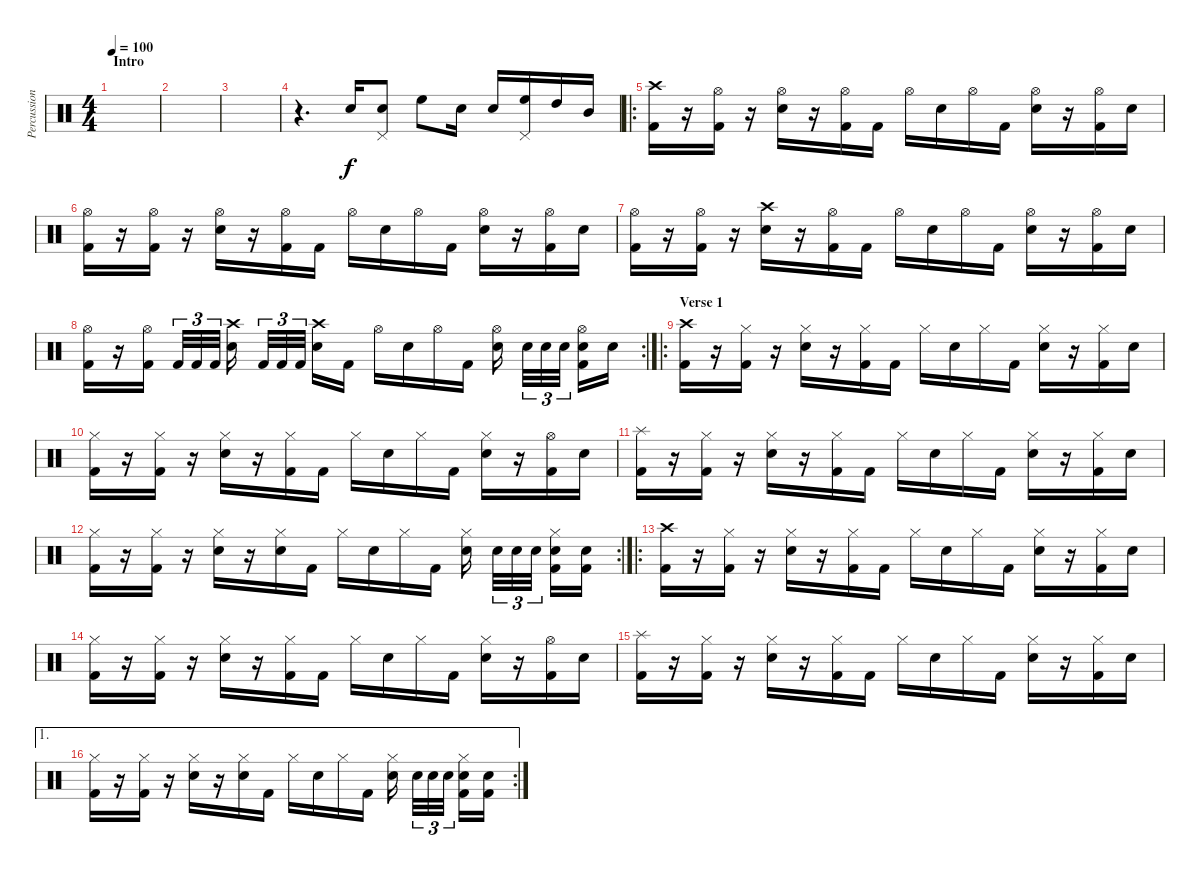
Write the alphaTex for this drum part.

\track ("Percussion" "Percussion") {instrument percussion}
\staff {score}
\articulation defaults
\ts (4 4)
\section ("" "Intro")
\tempo 100
\clef neutral
\ks c
|
|
|
r.4{d} "Electric Snare (hit)".16 ("Pedal Hi-Hat (hit)" "Electric Snare (hit)").8 "High Floor Tom (hit)".8 "Electric Snare (hit)".16 "Electric Snare (hit)".16 ("Pedal Hi-Hat (hit)" "High Floor Tom (hit)").16 "High Tom (hit)".16 "Mid Tom (hit)".16 |
\ro
("Crash high (hit)" "Kick (hit) 2").16 r.16 ("Hi-Hat (open)" "Kick (hit) 2").16 r.16 ("Hi-Hat (open)" "Electric Snare (hit)").16 r.16 ("Hi-Hat (open)" "Kick (hit) 2").16 "Kick (hit) 2".16 "Hi-Hat (open)".16 "Electric Snare (hit)".16 "Hi-Hat (open)".16 "Kick (hit) 2".16 ("Hi-Hat (open)" "Electric Snare (hit)").16 r.16 ("Hi-Hat (open)" "Kick (hit) 2").16 "Electric Snare (hit)".16 |
("Hi-Hat (open)" "Kick (hit) 2").16 r.16 ("Hi-Hat (open)" "Kick (hit) 2").16 r.16 ("Hi-Hat (open)" "Electric Snare (hit)").16 r.16 ("Hi-Hat (open)" "Kick (hit) 2").16 "Kick (hit) 2".16 "Hi-Hat (open)".16 "Electric Snare (hit)".16 "Hi-Hat (open)".16 "Kick (hit) 2".16 ("Hi-Hat (open)" "Electric Snare (hit)").16 r.16 ("Hi-Hat (open)" "Kick (hit) 2").16 "Electric Snare (hit)".16 |
("Hi-Hat (open)" "Kick (hit) 2").16 r.16 ("Hi-Hat (open)" "Kick (hit) 2").16 r.16 ("Crash high (hit)" "Electric Snare (hit)").16 r.16 ("Hi-Hat (open)" "Kick (hit) 2").16 "Kick (hit) 2".16 "Hi-Hat (open)".16 "Electric Snare (hit)".16 "Hi-Hat (open)".16 "Kick (hit) 2".16 ("Hi-Hat (open)" "Electric Snare (hit)").16 r.16 ("Hi-Hat (open)" "Kick (hit) 2").16 "Electric Snare (hit)".16 |
\rc 2
("Hi-Hat (open)" "Kick (hit) 2").16 r.16 ("Hi-Hat (open)" "Kick (hit) 2").16 "Kick (hit) 2".32{tu (3 2)} "Kick (hit) 2".32{tu (3 2)} "Kick (hit) 2".32{tu (3 2)} ("Crash high (hit)" "Electric Snare (hit)").16 "Kick (hit) 2".32{tu (3 2)} "Kick (hit) 2".32{tu (3 2)} "Kick (hit) 2".32{tu (3 2)} ("Crash high (hit)" "Electric Snare (hit)").16 "Kick (hit) 2".16 "Hi-Hat (open)".16 "Electric Snare (hit)".16 "Hi-Hat (open)".16 "Kick (hit) 2".16 ("Hi-Hat (open)" "Electric Snare (hit)").16 "Electric Snare (hit)".32{tu (3 2)} "Electric Snare (hit)".32{tu (3 2)} "Electric Snare (hit)".32{tu (3 2)} ("Hi-Hat (open)" "Electric Snare (hit)" "Kick (hit) 2").16 "Electric Snare (hit)".16 |
\ro
\section ("" "Verse 1")
("Crash high (hit)" "Kick (hit) 2").16 r.16 ("Hi-Hat (closed)" "Kick (hit) 2").16 r.16 ("Hi-Hat (closed)" "Electric Snare (hit)").16 r.16 ("Hi-Hat (closed)" "Kick (hit) 2").16 "Kick (hit) 2".16 "Hi-Hat (closed)".16 "Electric Snare (hit)".16 "Hi-Hat (closed)".16 "Kick (hit) 2".16 ("Hi-Hat (closed)" "Electric Snare (hit)").16 r.16 ("Hi-Hat (closed)" "Kick (hit) 2").16 "Electric Snare (hit)".16 |
("Hi-Hat (closed)" "Kick (hit) 2").16 r.16 ("Hi-Hat (closed)" "Kick (hit) 2").16 r.16 ("Hi-Hat (closed)" "Electric Snare (hit)").16 r.16 ("Hi-Hat (closed)" "Kick (hit) 2").16 "Kick (hit) 2".16 "Hi-Hat (closed)".16 "Electric Snare (hit)".16 "Hi-Hat (closed)".16 "Kick (hit) 2".16 ("Hi-Hat (closed)" "Electric Snare (hit)").16 r.16 ("Hi-Hat (open)" "Kick (hit) 2").16 "Electric Snare (hit)".16 |
("Splash (hit)" "Kick (hit) 2").16 r.16 ("Hi-Hat (closed)" "Kick (hit) 2").16 r.16 ("Hi-Hat (closed)" "Electric Snare (hit)").16 r.16 ("Hi-Hat (closed)" "Kick (hit) 2").16 "Kick (hit) 2".16 "Hi-Hat (closed)".16 "Electric Snare (hit)".16 "Hi-Hat (closed)".16 "Kick (hit) 2".16 ("Hi-Hat (closed)" "Electric Snare (hit)").16 r.16 ("Hi-Hat (closed)" "Kick (hit) 2").16 "Electric Snare (hit)".16 |
\rc 2
("Hi-Hat (closed)" "Kick (hit) 2").16 r.16 ("Hi-Hat (closed)" "Kick (hit) 2").16 r.16 ("Hi-Hat (closed)" "Electric Snare (hit)").16 r.16 ("Hi-Hat (closed)" "Electric Snare (hit)").16 "Kick (hit) 2".16 "Hi-Hat (closed)".16 "Electric Snare (hit)".16 "Hi-Hat (closed)".16 "Kick (hit) 2".16 ("Hi-Hat (closed)" "Electric Snare (hit)").16 "Electric Snare (hit)".32{tu (3 2)} "Electric Snare (hit)".32{tu (3 2)} "Electric Snare (hit)".32{tu (3 2)} ("Hi-Hat (closed)" "Electric Snare (hit)" "Kick (hit) 2").16 ("Electric Snare (hit)" "Kick (hit) 2").16 |
\ro
("Crash high (hit)" "Kick (hit) 2").16 r.16 ("Hi-Hat (closed)" "Kick (hit) 2").16 r.16 ("Hi-Hat (closed)" "Electric Snare (hit)").16 r.16 ("Hi-Hat (closed)" "Kick (hit) 2").16 "Kick (hit) 2".16 "Hi-Hat (closed)".16 "Electric Snare (hit)".16 "Hi-Hat (closed)".16 "Kick (hit) 2".16 ("Hi-Hat (closed)" "Electric Snare (hit)").16 r.16 ("Hi-Hat (closed)" "Kick (hit) 2").16 "Electric Snare (hit)".16 |
("Hi-Hat (closed)" "Kick (hit) 2").16 r.16 ("Hi-Hat (closed)" "Kick (hit) 2").16 r.16 ("Hi-Hat (closed)" "Electric Snare (hit)").16 r.16 ("Hi-Hat (closed)" "Kick (hit) 2").16 "Kick (hit) 2".16 "Hi-Hat (closed)".16 "Electric Snare (hit)".16 "Hi-Hat (closed)".16 "Kick (hit) 2".16 ("Hi-Hat (closed)" "Electric Snare (hit)").16 r.16 ("Hi-Hat (open)" "Kick (hit) 2").16 "Electric Snare (hit)".16 |
("Splash (hit)" "Kick (hit) 2").16 r.16 ("Hi-Hat (closed)" "Kick (hit) 2").16 r.16 ("Hi-Hat (closed)" "Electric Snare (hit)").16 r.16 ("Hi-Hat (closed)" "Kick (hit) 2").16 "Kick (hit) 2".16 "Hi-Hat (closed)".16 "Electric Snare (hit)".16 "Hi-Hat (closed)".16 "Kick (hit) 2".16 ("Hi-Hat (closed)" "Electric Snare (hit)").16 r.16 ("Hi-Hat (closed)" "Kick (hit) 2").16 "Electric Snare (hit)".16 |
\ae 1
\rc 2
("Hi-Hat (closed)" "Kick (hit) 2").16 r.16 ("Hi-Hat (closed)" "Kick (hit) 2").16 r.16 ("Hi-Hat (closed)" "Electric Snare (hit)").16 r.16 ("Hi-Hat (closed)" "Electric Snare (hit)").16 "Kick (hit) 2".16 "Hi-Hat (closed)".16 "Electric Snare (hit)".16 "Hi-Hat (closed)".16 "Kick (hit) 2".16 ("Hi-Hat (closed)" "Electric Snare (hit)").16 "Electric Snare (hit)".32{tu (3 2)} "Electric Snare (hit)".32{tu (3 2)} "Electric Snare (hit)".32{tu (3 2)} ("Hi-Hat (closed)" "Electric Snare (hit)" "Kick (hit) 2").16 ("Electric Snare (hit)" "Kick (hit) 2").16
